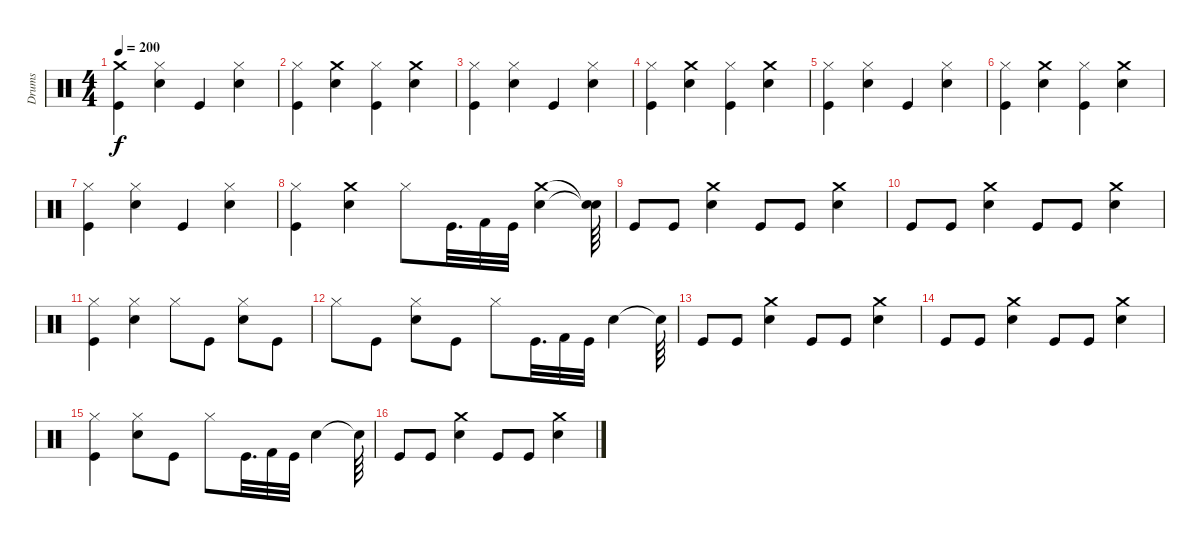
\track ("Drums" "Drums") {instrument percussion}
\staff {score}
\articulation defaults
\ts (4 4)
\tempo 200
\clef neutral
\ks c
("Crash medium (hit)" "Kick (hit)").4{dy f} ("Hi-Hat (closed)" "Snare (hit) 2").4 "Kick (hit)".4 ("Snare (hit) 2" "Hi-Hat (closed)").4 |
("Hi-Hat (closed)" "Kick (hit)").4 ("Crash medium (hit)" "Snare (hit) 2").4 ("Hi-Hat (closed)" "Kick (hit)").4 ("Crash medium (hit)" "Snare (hit) 2").4 |
("Hi-Hat (closed)" "Kick (hit)").4 ("Hi-Hat (closed)" "Snare (hit) 2").4 "Kick (hit)".4 ("Snare (hit) 2" "Hi-Hat (closed)").4 |
("Hi-Hat (closed)" "Kick (hit)").4 ("Crash medium (hit)" "Snare (hit) 2").4 ("Hi-Hat (closed)" "Kick (hit)").4 ("Crash medium (hit)" "Snare (hit) 2").4 |
("Hi-Hat (closed)" "Kick (hit)").4 ("Hi-Hat (closed)" "Snare (hit) 2").4 "Kick (hit)".4 ("Snare (hit) 2" "Hi-Hat (closed)").4 |
("Hi-Hat (closed)" "Kick (hit)").4 ("Crash medium (hit)" "Snare (hit) 2").4 ("Hi-Hat (closed)" "Kick (hit)").4 ("Crash medium (hit)" "Snare (hit) 2").4 |
("Hi-Hat (closed)" "Kick (hit)").4 ("Hi-Hat (closed)" "Snare (hit) 2").4 "Kick (hit)".4 ("Snare (hit) 2" "Hi-Hat (closed)").4 |
("Hi-Hat (closed)" "Kick (hit)").4 ("Crash medium (hit)" "Snare (hit) 2").4 "Hi-Hat (closed)".8 "Kick (hit)".32{d} "Kick (hit) 2".32 "Kick (hit)".32 ("Crash medium (hit)" "Snare (hit) 2").4 ("Snare (hit)"{t} "Snare (hit)"{t}).64 |
"Kick (hit)".8 "Kick (hit)".8 ("Snare (hit) 2" "Crash medium (hit)").4 "Kick (hit)".8 "Kick (hit)".8 ("Snare (hit) 2" "Crash medium (hit)").4 |
"Kick (hit)".8 "Kick (hit)".8 ("Snare (hit) 2" "Crash medium (hit)").4 "Kick (hit)".8 "Kick (hit)".8 ("Snare (hit) 2" "Crash medium (hit)").4 |
("Kick (hit)" "Hi-Hat (closed)").4 ("Hi-Hat (closed)" "Snare (hit) 2").4 "Hi-Hat (closed)".8 "Kick (hit)".8 ("Snare (hit) 2" "Hi-Hat (closed)").8 "Kick (hit)".8 |
"Hi-Hat (closed)".8 "Kick (hit)".8 ("Snare (hit) 2" "Hi-Hat (closed)").8 "Kick (hit)".8 "Hi-Hat (closed)".8 "Kick (hit)".32{d} "Kick (hit) 2".32 "Kick (hit)".32 "Snare (hit) 2".4 "Snare (hit)"{t}.64 |
"Kick (hit)".8 "Kick (hit)".8 ("Snare (hit) 2" "Crash medium (hit)").4 "Kick (hit)".8 "Kick (hit)".8 ("Snare (hit) 2" "Crash medium (hit)").4 |
"Kick (hit)".8 "Kick (hit)".8 ("Snare (hit) 2" "Crash medium (hit)").4 "Kick (hit)".8 "Kick (hit)".8 ("Snare (hit) 2" "Crash medium (hit)").4 |
("Kick (hit)" "Hi-Hat (closed)").4 ("Snare (hit) 2" "Hi-Hat (closed)").8 "Kick (hit)".8 "Hi-Hat (closed)".8 "Kick (hit)".32{d} "Kick (hit) 2".32 "Kick (hit)".32 "Snare (hit) 2".4 "Snare (hit)"{t}.64 |
"Kick (hit)".8 "Kick (hit)".8 ("Snare (hit) 2" "Crash medium (hit)").4 "Kick (hit)".8 "Kick (hit)".8 ("Snare (hit) 2" "Crash medium (hit)").4
